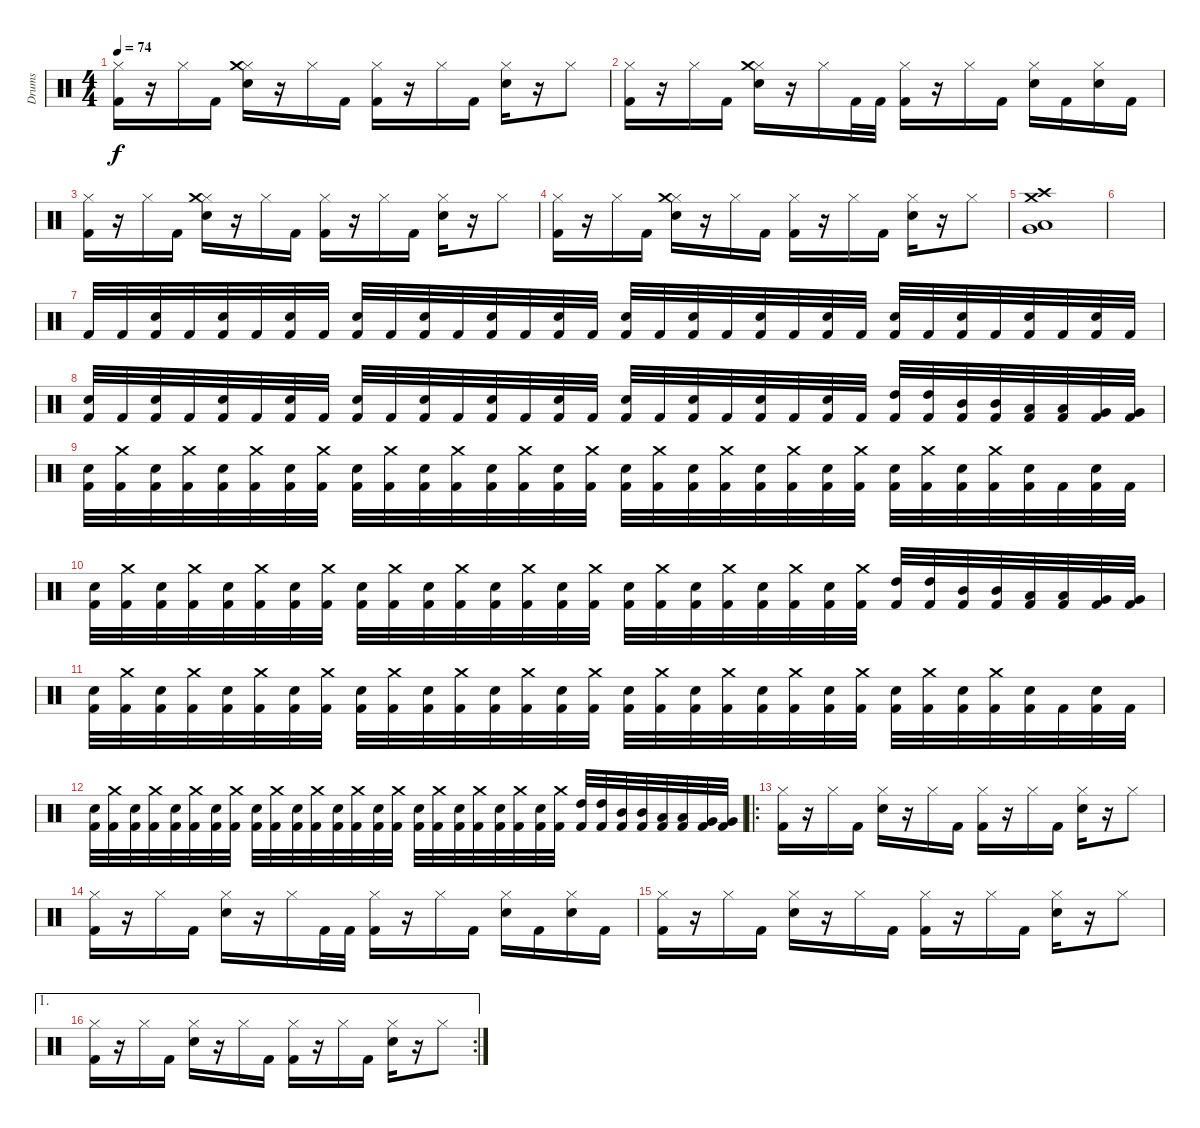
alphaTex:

\track ("Drums" "Drums") {instrument percussion}
\staff {score}
\articulation defaults
\ts (4 4)
\tempo 74
\clef neutral
\ks c
("Hi-Hat (closed)" "Kick (hit) 2").16{dy f} r.16 "Hi-Hat (closed)".16 "Kick (hit) 2".16 ("Hi-Hat (closed)" "Snare (hit) 2" "Crash medium (hit)").16 r.16 "Hi-Hat (closed)".16 "Kick (hit) 2".16 ("Hi-Hat (closed)" "Kick (hit) 2").16 r.16 "Hi-Hat (closed)".16 "Kick (hit) 2".16 ("Hi-Hat (closed)" "Snare (hit) 2").16 r.16 "Hi-Hat (closed)".8 |
("Hi-Hat (closed)" "Kick (hit) 2").16 r.16 "Hi-Hat (closed)".16 "Kick (hit) 2".16 ("Hi-Hat (closed)" "Snare (hit) 2" "Crash medium (hit)").16 r.16 "Hi-Hat (closed)".16 "Kick (hit) 2".32 "Kick (hit) 2".32 ("Hi-Hat (closed)" "Kick (hit) 2").16 r.16 "Hi-Hat (closed)".16 "Kick (hit) 2".16 ("Hi-Hat (closed)" "Snare (hit) 2").16 "Kick (hit) 2".16 ("Hi-Hat (closed)" "Snare (hit) 2").16 "Kick (hit) 2".16 |
("Hi-Hat (closed)" "Kick (hit) 2").16 r.16 "Hi-Hat (closed)".16 "Kick (hit) 2".16 ("Hi-Hat (closed)" "Snare (hit) 2" "Crash medium (hit)").16 r.16 "Hi-Hat (closed)".16 "Kick (hit) 2".16 ("Hi-Hat (closed)" "Kick (hit) 2").16 r.16 "Hi-Hat (closed)".16 "Kick (hit) 2".16 ("Hi-Hat (closed)" "Snare (hit) 2").16 r.16 "Hi-Hat (closed)".8 |
("Hi-Hat (closed)" "Kick (hit) 2").16 r.16 "Hi-Hat (closed)".16 "Kick (hit) 2".16 ("Hi-Hat (closed)" "Snare (hit) 2" "Crash medium (hit)").16 r.16 "Hi-Hat (closed)".16 "Kick (hit) 2".16 ("Hi-Hat (closed)" "Kick (hit) 2").16 r.16 "Hi-Hat (closed)".16 "Kick (hit) 2".16 ("Hi-Hat (closed)" "Snare (hit) 2").16 r.16 "Hi-Hat (closed)".8 |
("Crash medium (hit)" "Crash high (hit)" "Low Floor Tom (hit)" "Very Low Tom (hit)").1 |
|
"Kick (hit) 2".32 "Kick (hit) 2".32 ("Kick (hit) 2" "Snare (hit) 2").32 "Kick (hit) 2".32 ("Kick (hit) 2" "Snare (hit) 2").32 "Kick (hit) 2".32 ("Kick (hit) 2" "Snare (hit) 2").32 "Kick (hit) 2".32 ("Kick (hit) 2" "Snare (hit) 2").32 "Kick (hit) 2".32 ("Kick (hit) 2" "Snare (hit) 2").32 "Kick (hit) 2".32 ("Kick (hit) 2" "Snare (hit) 2").32 "Kick (hit) 2".32 ("Kick (hit) 2" "Snare (hit) 2").32 "Kick (hit) 2".32 ("Kick (hit) 2" "Snare (hit) 2").32 "Kick (hit) 2".32 ("Kick (hit) 2" "Snare (hit) 2").32 "Kick (hit) 2".32 ("Kick (hit) 2" "Snare (hit) 2").32 "Kick (hit) 2".32 ("Kick (hit) 2" "Snare (hit) 2").32 "Kick (hit) 2".32 ("Kick (hit) 2" "Snare (hit) 2").32 "Kick (hit) 2".32 ("Kick (hit) 2" "Snare (hit) 2").32 "Kick (hit) 2".32 ("Kick (hit) 2" "Snare (hit) 2").32 "Kick (hit) 2".32 ("Kick (hit) 2" "Snare (hit) 2").32 "Kick (hit) 2".32 |
("Kick (hit) 2" "Snare (hit) 2").32 "Kick (hit) 2".32 ("Kick (hit) 2" "Snare (hit) 2").32 "Kick (hit) 2".32 ("Kick (hit) 2" "Snare (hit) 2").32 "Kick (hit) 2".32 ("Kick (hit) 2" "Snare (hit) 2").32 "Kick (hit) 2".32 ("Kick (hit) 2" "Snare (hit) 2").32 "Kick (hit) 2".32 ("Kick (hit) 2" "Snare (hit) 2").32 "Kick (hit) 2".32 ("Kick (hit) 2" "Snare (hit) 2").32 "Kick (hit) 2".32 ("Kick (hit) 2" "Snare (hit) 2").32 "Kick (hit) 2".32 ("Kick (hit) 2" "Snare (hit) 2").32 "Kick (hit) 2".32 ("Kick (hit) 2" "Snare (hit) 2").32 "Kick (hit) 2".32 ("Kick (hit) 2" "Snare (hit) 2").32 "Kick (hit) 2".32 ("Kick (hit) 2" "Snare (hit) 2").32 "Kick (hit) 2".32 ("Kick (hit) 2" "High Tom (hit)").32 ("Kick (hit) 2" "High Tom (hit)").32 ("Kick (hit) 2" "Mid Tom (hit)").32 ("Kick (hit) 2" "Mid Tom (hit)").32 ("Kick (hit) 2" "Low Tom (hit)").32 ("Kick (hit) 2" "Low Tom (hit)").32 ("Kick (hit) 2" "Very Low Tom (hit)").32 ("Kick (hit) 2" "Very Low Tom (hit)").32 |
("Kick (hit) 2" "Snare (hit) 2").32 ("Kick (hit) 2" "Crash medium (hit)").32 ("Kick (hit) 2" "Snare (hit) 2").32 ("Kick (hit) 2" "Crash medium (hit)").32 ("Kick (hit) 2" "Snare (hit) 2").32 ("Kick (hit) 2" "Crash medium (hit)").32 ("Kick (hit) 2" "Snare (hit) 2").32 ("Kick (hit) 2" "Crash medium (hit)").32 ("Kick (hit) 2" "Snare (hit) 2").32 ("Kick (hit) 2" "Crash medium (hit)").32 ("Kick (hit) 2" "Snare (hit) 2").32 ("Kick (hit) 2" "Crash medium (hit)").32 ("Kick (hit) 2" "Snare (hit) 2").32 ("Kick (hit) 2" "Crash medium (hit)").32 ("Kick (hit) 2" "Snare (hit) 2").32 ("Kick (hit) 2" "Crash medium (hit)").32 ("Kick (hit) 2" "Snare (hit) 2").32 ("Kick (hit) 2" "Crash medium (hit)").32 ("Kick (hit) 2" "Snare (hit) 2").32 ("Kick (hit) 2" "Crash medium (hit)").32 ("Kick (hit) 2" "Snare (hit) 2").32 ("Kick (hit) 2" "Crash medium (hit)").32 ("Kick (hit) 2" "Snare (hit) 2").32 ("Kick (hit) 2" "Crash medium (hit)").32 ("Kick (hit) 2" "Snare (hit) 2").32 ("Kick (hit) 2" "Crash medium (hit)").32 ("Kick (hit) 2" "Snare (hit) 2").32 ("Kick (hit) 2" "Crash medium (hit)").32 ("Kick (hit) 2" "Snare (hit) 2").32 "Kick (hit) 2".32 ("Kick (hit) 2" "Snare (hit) 2").32 "Kick (hit) 2".32 |
("Kick (hit) 2" "Snare (hit) 2").32 ("Kick (hit) 2" "Crash medium (hit)").32 ("Kick (hit) 2" "Snare (hit) 2").32 ("Kick (hit) 2" "Crash medium (hit)").32 ("Kick (hit) 2" "Snare (hit) 2").32 ("Kick (hit) 2" "Crash medium (hit)").32 ("Kick (hit) 2" "Snare (hit) 2").32 ("Kick (hit) 2" "Crash medium (hit)").32 ("Kick (hit) 2" "Snare (hit) 2").32 ("Kick (hit) 2" "Crash medium (hit)").32 ("Kick (hit) 2" "Snare (hit) 2").32 ("Kick (hit) 2" "Crash medium (hit)").32 ("Kick (hit) 2" "Snare (hit) 2").32 ("Kick (hit) 2" "Crash medium (hit)").32 ("Kick (hit) 2" "Snare (hit) 2").32 ("Kick (hit) 2" "Crash medium (hit)").32 ("Kick (hit) 2" "Snare (hit) 2").32 ("Kick (hit) 2" "Crash medium (hit)").32 ("Kick (hit) 2" "Snare (hit) 2").32 ("Kick (hit) 2" "Crash medium (hit)").32 ("Kick (hit) 2" "Snare (hit) 2").32 ("Kick (hit) 2" "Crash medium (hit)").32 ("Kick (hit) 2" "Snare (hit) 2").32 ("Kick (hit) 2" "Crash medium (hit)").32 ("Kick (hit) 2" "High Tom (hit)").32 ("Kick (hit) 2" "High Tom (hit)").32 ("Kick (hit) 2" "Mid Tom (hit)").32 ("Kick (hit) 2" "Mid Tom (hit)").32 ("Kick (hit) 2" "Low Tom (hit)").32 ("Kick (hit) 2" "Low Tom (hit)").32 ("Kick (hit) 2" "Very Low Tom (hit)").32 ("Kick (hit) 2" "Very Low Tom (hit)").32 |
("Kick (hit) 2" "Snare (hit) 2").32 ("Kick (hit) 2" "Crash medium (hit)").32 ("Kick (hit) 2" "Snare (hit) 2").32 ("Kick (hit) 2" "Crash medium (hit)").32 ("Kick (hit) 2" "Snare (hit) 2").32 ("Kick (hit) 2" "Crash medium (hit)").32 ("Kick (hit) 2" "Snare (hit) 2").32 ("Kick (hit) 2" "Crash medium (hit)").32 ("Kick (hit) 2" "Snare (hit) 2").32 ("Kick (hit) 2" "Crash medium (hit)").32 ("Kick (hit) 2" "Snare (hit) 2").32 ("Kick (hit) 2" "Crash medium (hit)").32 ("Kick (hit) 2" "Snare (hit) 2").32 ("Kick (hit) 2" "Crash medium (hit)").32 ("Kick (hit) 2" "Snare (hit) 2").32 ("Kick (hit) 2" "Crash medium (hit)").32 ("Kick (hit) 2" "Snare (hit) 2").32 ("Kick (hit) 2" "Crash medium (hit)").32 ("Kick (hit) 2" "Snare (hit) 2").32 ("Kick (hit) 2" "Crash medium (hit)").32 ("Kick (hit) 2" "Snare (hit) 2").32 ("Kick (hit) 2" "Crash medium (hit)").32 ("Kick (hit) 2" "Snare (hit) 2").32 ("Kick (hit) 2" "Crash medium (hit)").32 ("Kick (hit) 2" "Snare (hit) 2").32 ("Kick (hit) 2" "Crash medium (hit)").32 ("Kick (hit) 2" "Snare (hit) 2").32 ("Kick (hit) 2" "Crash medium (hit)").32 ("Kick (hit) 2" "Snare (hit) 2").32 "Kick (hit) 2".32 ("Kick (hit) 2" "Snare (hit) 2").32 "Kick (hit) 2".32 |
("Kick (hit) 2" "Snare (hit) 2").32 ("Kick (hit) 2" "Crash medium (hit)").32 ("Kick (hit) 2" "Snare (hit) 2").32 ("Kick (hit) 2" "Crash medium (hit)").32 ("Kick (hit) 2" "Snare (hit) 2").32 ("Kick (hit) 2" "Crash medium (hit)").32 ("Kick (hit) 2" "Snare (hit) 2").32 ("Kick (hit) 2" "Crash medium (hit)").32 ("Kick (hit) 2" "Snare (hit) 2").32 ("Kick (hit) 2" "Crash medium (hit)").32 ("Kick (hit) 2" "Snare (hit) 2").32 ("Kick (hit) 2" "Crash medium (hit)").32 ("Kick (hit) 2" "Snare (hit) 2").32 ("Kick (hit) 2" "Crash medium (hit)").32 ("Kick (hit) 2" "Snare (hit) 2").32 ("Kick (hit) 2" "Crash medium (hit)").32 ("Kick (hit) 2" "Snare (hit) 2").32 ("Kick (hit) 2" "Crash medium (hit)").32 ("Kick (hit) 2" "Snare (hit) 2").32 ("Kick (hit) 2" "Crash medium (hit)").32 ("Kick (hit) 2" "Snare (hit) 2").32 ("Kick (hit) 2" "Crash medium (hit)").32 ("Kick (hit) 2" "Snare (hit) 2").32 ("Kick (hit) 2" "Crash medium (hit)").32 ("Kick (hit) 2" "High Tom (hit)").32 ("Kick (hit) 2" "High Tom (hit)").32 ("Kick (hit) 2" "Mid Tom (hit)").32 ("Kick (hit) 2" "Mid Tom (hit)").32 ("Kick (hit) 2" "Low Tom (hit)").32 ("Kick (hit) 2" "Low Tom (hit)").32 ("Kick (hit) 2" "Very Low Tom (hit)").32 ("Kick (hit) 2" "Very Low Tom (hit)").32 |
\ro
("Hi-Hat (closed)" "Kick (hit) 2").16 r.16 "Hi-Hat (closed)".16 "Kick (hit) 2".16 ("Hi-Hat (closed)" "Snare (hit) 2").16 r.16 "Hi-Hat (closed)".16 "Kick (hit) 2".16 ("Hi-Hat (closed)" "Kick (hit) 2").16 r.16 "Hi-Hat (closed)".16 "Kick (hit) 2".16 ("Hi-Hat (closed)" "Snare (hit) 2").16 r.16 "Hi-Hat (closed)".8 |
("Hi-Hat (closed)" "Kick (hit) 2").16 r.16 "Hi-Hat (closed)".16 "Kick (hit) 2".16 ("Hi-Hat (closed)" "Snare (hit) 2").16 r.16 "Hi-Hat (closed)".16 "Kick (hit) 2".32 "Kick (hit) 2".32 ("Hi-Hat (closed)" "Kick (hit) 2").16 r.16 "Hi-Hat (closed)".16 "Kick (hit) 2".16 ("Hi-Hat (closed)" "Snare (hit) 2").16 "Kick (hit) 2".16 ("Hi-Hat (closed)" "Snare (hit) 2").16 "Kick (hit) 2".16 |
("Hi-Hat (closed)" "Kick (hit) 2").16 r.16 "Hi-Hat (closed)".16 "Kick (hit) 2".16 ("Hi-Hat (closed)" "Snare (hit) 2").16 r.16 "Hi-Hat (closed)".16 "Kick (hit) 2".16 ("Hi-Hat (closed)" "Kick (hit) 2").16 r.16 "Hi-Hat (closed)".16 "Kick (hit) 2".16 ("Hi-Hat (closed)" "Snare (hit) 2").16 r.16 "Hi-Hat (closed)".8 |
\ae 1
\rc 2
("Hi-Hat (closed)" "Kick (hit) 2").16 r.16 "Hi-Hat (closed)".16 "Kick (hit) 2".16 ("Hi-Hat (closed)" "Snare (hit) 2").16 r.16 "Hi-Hat (closed)".16 "Kick (hit) 2".16 ("Hi-Hat (closed)" "Kick (hit) 2").16 r.16 "Hi-Hat (closed)".16 "Kick (hit) 2".16 ("Hi-Hat (closed)" "Snare (hit) 2").16 r.16 "Hi-Hat (closed)".8
